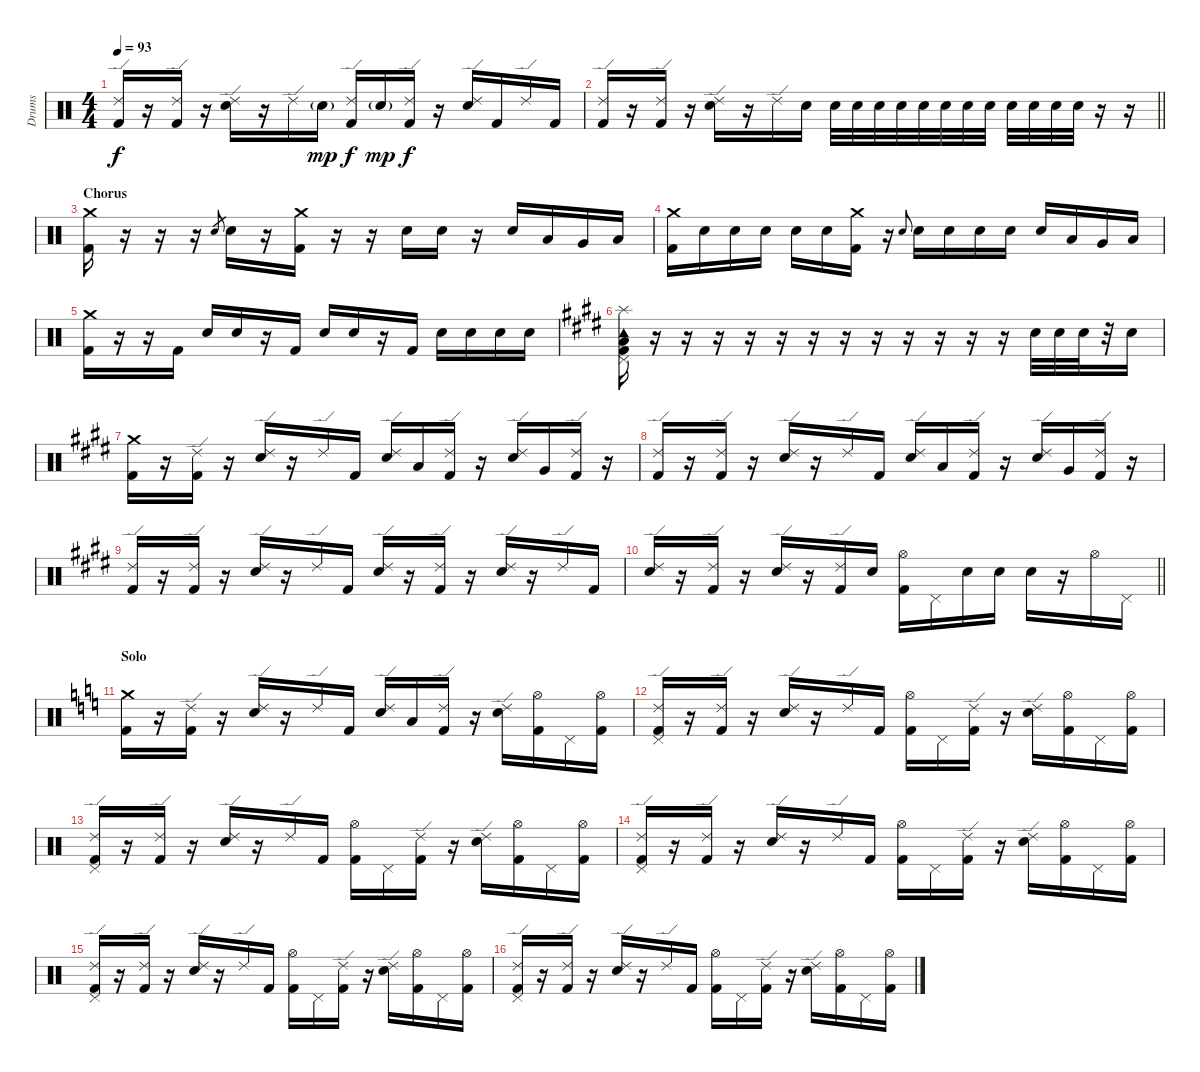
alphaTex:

\track ("Drums" "Drums") {instrument percussion}
\staff {score}
\articulation defaults
\ts (4 4)
\tempo 93
\clef neutral
\ks c
("Ride (edge) 2" "Kick (hit) 2").16{dy f} r.16 ("Ride (edge) 2" "Kick (hit) 2").16 r.16 ("Ride (edge) 2" "Snare (hit) 2").16 r.16 "Ride (edge) 2".16 "Snare (hit) 2"{g}.16{dy mp} ("Ride (edge) 2" "Kick (hit) 2").16{dy f} "Snare (hit) 2"{g}.16{dy mp} ("Ride (edge) 2" "Kick (hit) 2").16{dy f} r.16 ("Ride (edge) 2" "Snare (hit) 2").16 "Kick (hit) 2".16 "Ride (edge) 2".16 "Kick (hit) 2".16 |
\barLineRight lightlight
("Ride (edge) 2" "Kick (hit) 2").16 r.16 ("Ride (edge) 2" "Kick (hit) 2").16 r.16 ("Ride (edge) 2" "Snare (hit) 2").16 r.16 "Ride (edge) 2".16 "Snare (hit) 2".16 "Snare (hit) 2".32 "Snare (hit) 2".32 "Snare (hit) 2".32 "Snare (hit) 2".32 "Snare (hit) 2".32 "Snare (hit) 2".32 "Snare (hit) 2".32 "Snare (hit) 2".32 "Snare (hit) 2".32 "Snare (hit) 2".32 "Snare (hit) 2".32 "Snare (hit) 2".32 r.16 r.16 |
\section ("" "Chorus")
("Crash medium (hit)" "Kick (hit) 2").16 r.16 r.16 r.16 "Snare (hit) 2".8{gr} "Snare (hit) 2".16 r.16 ("Crash medium (hit)" "Kick (hit) 2").16 r.16 r.16 "Snare (hit) 2".16 "Snare (hit) 2".16 r.16 "Snare (hit) 2".16 "Low Tom (hit)".16 "Very Low Tom (hit)".16 "Low Floor Tom (hit)".16 |
("Crash medium (hit)" "Kick (hit) 2").16 "Snare (hit) 2".16 "Snare (hit) 2".16 "Snare (hit) 2".16 "Snare (hit) 2".16 "Snare (hit) 2".16 ("Crash medium (hit)" "Kick (hit) 2").16 r.16 "Snare (hit) 2".8{gr onbeat} "Snare (hit) 2".16 "Snare (hit) 2".16 "Snare (hit) 2".16 "Snare (hit) 2".16 "Snare (hit) 2".16 "Low Tom (hit)".16 "Very Low Tom (hit)".16 "Low Floor Tom (hit)".16 |
("Crash medium (hit)" "Kick (hit) 2").16 r.16 r.16 "Kick (hit) 2".16 "Snare (hit) 2".16 "Snare (hit) 2".16 r.16 "Kick (hit) 2".16 "Snare (hit) 2".16 "Snare (hit) 2".16 r.16 "Kick (hit) 2".16 "Snare (hit) 2".16 "Snare (hit) 2".16 "Snare (hit) 2".16 "Snare (hit) 2".16 |
\ks e
("Pedal Hi-Hat (hit)" "Tambourine (hit)" "Splash (hit)" "Low Floor Tom (hit)" "Kick (hit) 2").16 r.16 r.16 r.16 r.16 r.16 r.16 r.16 r.16 r.16 r.16 r.16 r.16 "Snare (hit) 2".32 "Snare (hit) 2".32 "Snare (hit) 2".32 r.32 "Snare (hit) 2".16 |
("Crash medium (hit)" "Kick (hit) 2").16 r.16 ("Ride (edge) 2" "Kick (hit) 2").16 r.16 ("Ride (edge) 2" "Snare (hit) 2").16 r.16 "Ride (edge) 2".16 "Kick (hit) 2".16 ("Ride (edge) 2" "Snare (hit) 2").16 "Low Tom (hit)".16 ("Ride (edge) 2" "Kick (hit) 2").16 r.16 ("Ride (edge) 2" "Snare (hit) 2").16 "Very Low Tom (hit)".16 ("Ride (edge) 2" "Kick (hit) 2").16 r.16 |
("Ride (edge) 2" "Kick (hit) 2").16 r.16 ("Ride (edge) 2" "Kick (hit) 2").16 r.16 ("Ride (edge) 2" "Snare (hit) 2").16 r.16 "Ride (edge) 2".16 "Kick (hit) 2".16 ("Ride (edge) 2" "Snare (hit) 2").16 "Low Tom (hit)".16 ("Ride (edge) 2" "Kick (hit) 2").16 r.16 ("Ride (edge) 2" "Snare (hit) 2").16 "Very Low Tom (hit)".16 ("Ride (edge) 2" "Kick (hit) 2").16 r.16 |
("Ride (edge) 2" "Kick (hit) 2").16 r.16 ("Ride (edge) 2" "Kick (hit) 2").16 r.16 ("Ride (edge) 2" "Snare (hit) 2").16 r.16 "Ride (edge) 2".16 "Kick (hit) 2".16 ("Ride (edge) 2" "Snare (hit) 2").16 r.16 ("Ride (edge) 2" "Kick (hit) 2").16 r.16 ("Ride (edge) 2" "Snare (hit) 2").16 r.16 "Ride (edge) 2".16 "Kick (hit) 2".16 |
\barLineRight lightlight
("Ride (edge) 2" "Snare (hit) 2").16 r.16 ("Ride (edge) 2" "Kick (hit) 2").16 r.16 ("Ride (edge) 2" "Snare (hit) 2").16 r.16 ("Ride (edge) 2" "Kick (hit) 2").16 "Snare (hit) 2".16 ("Hi-Hat (open)" "Kick (hit) 2").16 "Pedal Hi-Hat (hit)".16 "Snare (hit) 2".16 "Snare (hit) 2".16 "Snare (hit) 2".16 r.16 "Hi-Hat (open)".16 "Pedal Hi-Hat (hit)".16 |
\section ("" "Solo")
\ks c
("Crash medium (hit)" "Kick (hit) 2").16 r.16 ("Ride (edge) 2" "Kick (hit) 2").16 r.16 ("Ride (edge) 2" "Snare (hit) 2").16 r.16 "Ride (edge) 2".16 "Kick (hit) 2".16 ("Ride (edge) 2" "Snare (hit) 2").16 "Low Tom (hit)".16 ("Ride (edge) 2" "Kick (hit) 2").16 r.16 ("Ride (edge) 2" "Snare (hit) 2").16 ("Hi-Hat (open)" "Kick (hit) 2").16 "Pedal Hi-Hat (hit)".16 ("Hi-Hat (open)" "Kick (hit) 2").16 |
("Ride (edge) 2" "Pedal Hi-Hat (hit)" "Kick (hit) 2").16 r.16 ("Ride (edge) 2" "Kick (hit) 2").16 r.16 ("Ride (edge) 2" "Snare (hit) 2").16 r.16 "Ride (edge) 2".16 "Kick (hit) 2".16 ("Hi-Hat (open)" "Kick (hit) 2").16 "Pedal Hi-Hat (hit)".16 ("Ride (edge) 2" "Kick (hit) 2").16 r.16 ("Ride (edge) 2" "Snare (hit) 2").16 ("Hi-Hat (open)" "Kick (hit) 2").16 "Pedal Hi-Hat (hit)".16 ("Hi-Hat (open)" "Kick (hit) 2").16 |
("Ride (edge) 2" "Pedal Hi-Hat (hit)" "Kick (hit) 2").16 r.16 ("Ride (edge) 2" "Kick (hit) 2").16 r.16 ("Ride (edge) 2" "Snare (hit) 2").16 r.16 "Ride (edge) 2".16 "Kick (hit) 2".16 ("Hi-Hat (open)" "Kick (hit) 2").16 "Pedal Hi-Hat (hit)".16 ("Ride (edge) 2" "Kick (hit) 2").16 r.16 ("Ride (edge) 2" "Snare (hit) 2").16 ("Hi-Hat (open)" "Kick (hit) 2").16 "Pedal Hi-Hat (hit)".16 ("Hi-Hat (open)" "Kick (hit) 2").16 |
("Ride (edge) 2" "Pedal Hi-Hat (hit)" "Kick (hit) 2").16 r.16 ("Ride (edge) 2" "Kick (hit) 2").16 r.16 ("Ride (edge) 2" "Snare (hit) 2").16 r.16 "Ride (edge) 2".16 "Kick (hit) 2".16 ("Hi-Hat (open)" "Kick (hit) 2").16 "Pedal Hi-Hat (hit)".16 ("Ride (edge) 2" "Kick (hit) 2").16 r.16 ("Ride (edge) 2" "Snare (hit) 2").16 ("Hi-Hat (open)" "Kick (hit) 2").16 "Pedal Hi-Hat (hit)".16 ("Hi-Hat (open)" "Kick (hit) 2").16 |
("Ride (edge) 2" "Pedal Hi-Hat (hit)" "Kick (hit) 2").16 r.16 ("Ride (edge) 2" "Kick (hit) 2").16 r.16 ("Ride (edge) 2" "Snare (hit) 2").16 r.16 "Ride (edge) 2".16 "Kick (hit) 2".16 ("Hi-Hat (open)" "Kick (hit) 2").16 "Pedal Hi-Hat (hit)".16 ("Ride (edge) 2" "Kick (hit) 2").16 r.16 ("Ride (edge) 2" "Snare (hit) 2").16 ("Hi-Hat (open)" "Kick (hit) 2").16 "Pedal Hi-Hat (hit)".16 ("Hi-Hat (open)" "Kick (hit) 2").16 |
("Ride (edge) 2" "Pedal Hi-Hat (hit)" "Kick (hit) 2").16 r.16 ("Ride (edge) 2" "Kick (hit) 2").16 r.16 ("Ride (edge) 2" "Snare (hit) 2").16 r.16 "Ride (edge) 2".16 "Kick (hit) 2".16 ("Hi-Hat (open)" "Kick (hit) 2").16 "Pedal Hi-Hat (hit)".16 ("Ride (edge) 2" "Kick (hit) 2").16 r.16 ("Ride (edge) 2" "Snare (hit) 2").16 ("Hi-Hat (open)" "Kick (hit) 2").16 "Pedal Hi-Hat (hit)".16 ("Hi-Hat (open)" "Kick (hit) 2").16
